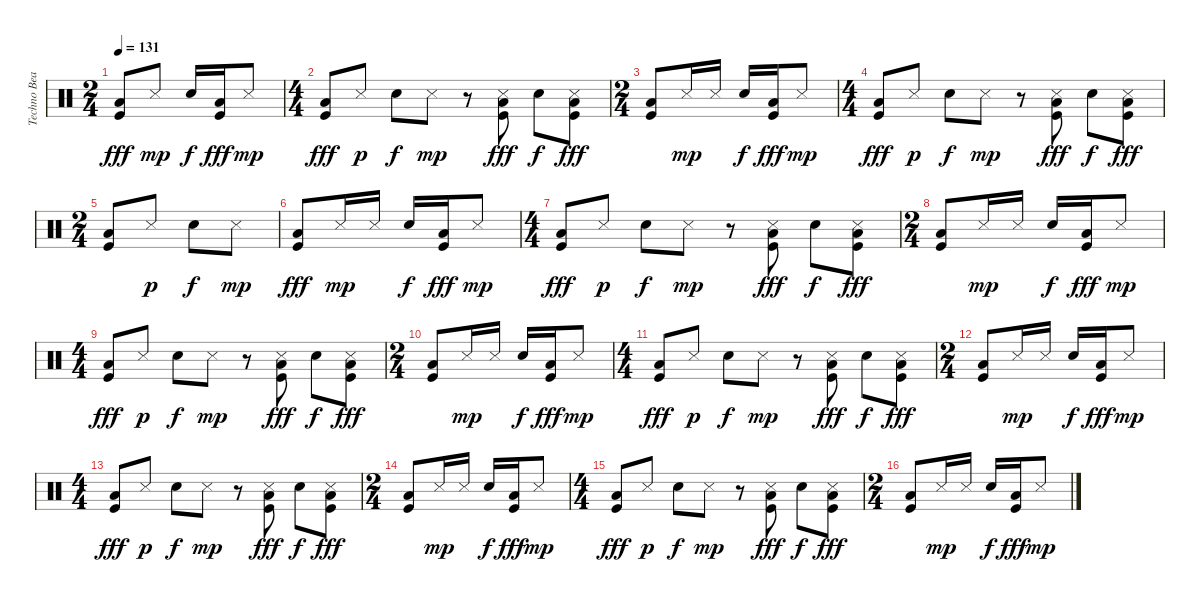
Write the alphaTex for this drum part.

\track ("Techno Beat" "Techno Bea") {instrument percussion}
\staff {score}
\articulation defaults
\ts (2 4)
\tempo 131
\clef neutral
\ks c
("Low Tom (hit)" "Kick (hit)").8{dy fff} "Snare (side stick) 3".8{dy mp} "Electric Snare (hit)".16{dy f} ("Low Tom (hit)" "Kick (hit)").16{dy fff} "Snare (side stick) 3".8{dy mp} |
\ts (4 4)
("Low Tom (hit)" "Kick (hit)").8{dy fff} "Snare (side stick) 3".8{dy p} "Electric Snare (hit)".8{dy f} "Snare (side stick) 3".8{dy mp} r.8 ("Snare (side stick) 3" "Low Tom (hit)" "Kick (hit)").8{dy fff} "Electric Snare (hit)".8{dy f} ("Snare (side stick) 3" "Low Tom (hit)" "Kick (hit)").8{dy fff} |
\ts (2 4)
("Low Tom (hit)" "Kick (hit)").8 "Snare (side stick) 3".16{dy mp} "Snare (side stick) 3".16 "Electric Snare (hit)".16{dy f} ("Low Tom (hit)" "Kick (hit)").16{dy fff} "Snare (side stick) 3".8{dy mp} |
\ts (4 4)
("Low Tom (hit)" "Kick (hit)").8{dy fff} "Snare (side stick) 3".8{dy p} "Electric Snare (hit)".8{dy f} "Snare (side stick) 3".8{dy mp} r.8 ("Snare (side stick) 3" "Low Tom (hit)" "Kick (hit)").8{dy fff} "Electric Snare (hit)".8{dy f} ("Snare (side stick) 3" "Low Tom (hit)" "Kick (hit)").8{dy fff} |
\ts (2 4)
("Low Tom (hit)" "Kick (hit)").8 "Snare (side stick) 3".8{dy p} "Electric Snare (hit)".8{dy f} "Snare (side stick) 3".8{dy mp} |
("Low Tom (hit)" "Kick (hit)").8{dy fff} "Snare (side stick) 3".16{dy mp} "Snare (side stick) 3".16 "Electric Snare (hit)".16{dy f} ("Low Tom (hit)" "Kick (hit)").16{dy fff} "Snare (side stick) 3".8{dy mp} |
\ts (4 4)
("Low Tom (hit)" "Kick (hit)").8{dy fff} "Snare (side stick) 3".8{dy p} "Electric Snare (hit)".8{dy f} "Snare (side stick) 3".8{dy mp} r.8 ("Snare (side stick) 3" "Low Tom (hit)" "Kick (hit)").8{dy fff} "Electric Snare (hit)".8{dy f} ("Snare (side stick) 3" "Low Tom (hit)" "Kick (hit)").8{dy fff} |
\ts (2 4)
("Low Tom (hit)" "Kick (hit)").8 "Snare (side stick) 3".16{dy mp} "Snare (side stick) 3".16 "Electric Snare (hit)".16{dy f} ("Low Tom (hit)" "Kick (hit)").16{dy fff} "Snare (side stick) 3".8{dy mp} |
\ts (4 4)
("Low Tom (hit)" "Kick (hit)").8{dy fff} "Snare (side stick) 3".8{dy p} "Electric Snare (hit)".8{dy f} "Snare (side stick) 3".8{dy mp} r.8 ("Snare (side stick) 3" "Low Tom (hit)" "Kick (hit)").8{dy fff} "Electric Snare (hit)".8{dy f} ("Snare (side stick) 3" "Low Tom (hit)" "Kick (hit)").8{dy fff} |
\ts (2 4)
("Low Tom (hit)" "Kick (hit)").8 "Snare (side stick) 3".16{dy mp} "Snare (side stick) 3".16 "Electric Snare (hit)".16{dy f} ("Low Tom (hit)" "Kick (hit)").16{dy fff} "Snare (side stick) 3".8{dy mp} |
\ts (4 4)
("Low Tom (hit)" "Kick (hit)").8{dy fff} "Snare (side stick) 3".8{dy p} "Electric Snare (hit)".8{dy f} "Snare (side stick) 3".8{dy mp} r.8 ("Snare (side stick) 3" "Low Tom (hit)" "Kick (hit)").8{dy fff} "Electric Snare (hit)".8{dy f} ("Snare (side stick) 3" "Low Tom (hit)" "Kick (hit)").8{dy fff} |
\ts (2 4)
("Low Tom (hit)" "Kick (hit)").8 "Snare (side stick) 3".16{dy mp} "Snare (side stick) 3".16 "Electric Snare (hit)".16{dy f} ("Low Tom (hit)" "Kick (hit)").16{dy fff} "Snare (side stick) 3".8{dy mp} |
\ts (4 4)
("Low Tom (hit)" "Kick (hit)").8{dy fff} "Snare (side stick) 3".8{dy p} "Electric Snare (hit)".8{dy f} "Snare (side stick) 3".8{dy mp} r.8 ("Snare (side stick) 3" "Low Tom (hit)" "Kick (hit)").8{dy fff} "Electric Snare (hit)".8{dy f} ("Snare (side stick) 3" "Low Tom (hit)" "Kick (hit)").8{dy fff} |
\ts (2 4)
("Low Tom (hit)" "Kick (hit)").8 "Snare (side stick) 3".16{dy mp} "Snare (side stick) 3".16 "Electric Snare (hit)".16{dy f} ("Low Tom (hit)" "Kick (hit)").16{dy fff} "Snare (side stick) 3".8{dy mp} |
\ts (4 4)
("Low Tom (hit)" "Kick (hit)").8{dy fff} "Snare (side stick) 3".8{dy p} "Electric Snare (hit)".8{dy f} "Snare (side stick) 3".8{dy mp} r.8 ("Snare (side stick) 3" "Low Tom (hit)" "Kick (hit)").8{dy fff} "Electric Snare (hit)".8{dy f} ("Snare (side stick) 3" "Low Tom (hit)" "Kick (hit)").8{dy fff} |
\ts (2 4)
("Low Tom (hit)" "Kick (hit)").8 "Snare (side stick) 3".16{dy mp} "Snare (side stick) 3".16 "Electric Snare (hit)".16{dy f} ("Low Tom (hit)" "Kick (hit)").16{dy fff} "Snare (side stick) 3".8{dy mp}
